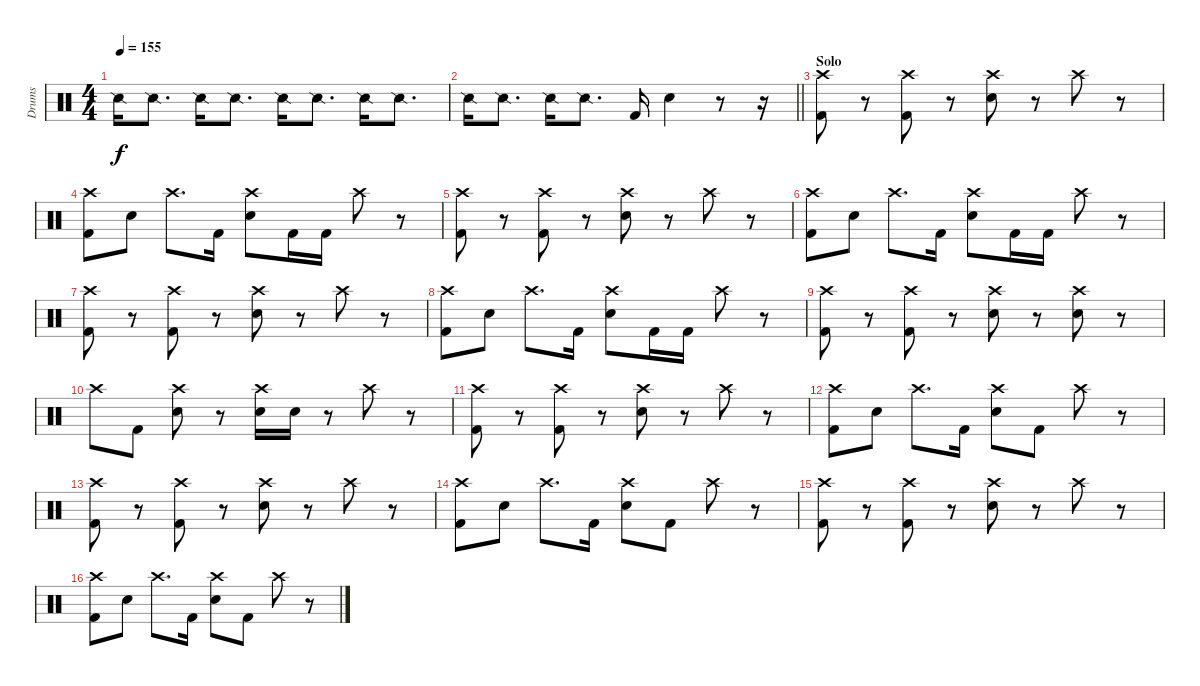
\track ("Drums" "Drums") {instrument percussion}
\staff {score}
\articulation defaults
\ts (4 4)
\tempo 155
\clef neutral
\ks c "Snare (side stick) 2".16{dy f} "Snare (side stick) 2".8{d} "Snare (side stick) 2".16 "Snare (side stick) 2".8{d} "Snare (side stick) 2".16 "Snare (side stick) 2".8{d} "Snare (side stick) 2".16 "Snare (side stick) 2".8{d}
|
\barLineRight lightlight "Snare (side stick) 2".16 "Snare (side stick) 2".8{d} "Snare (side stick) 2".16 "Snare (side stick) 2".8{d} "Kick (hit) 2".16 "Electric Snare (hit)".4
r.8 r.16 |
\section ("" "Solo")
("Crash high (hit)" "Kick (hit) 2").8 r.8 ("Crash high (hit)" "Kick (hit) 2").8 r.8 ("Crash high (hit)" "Electric Snare (hit)").8 r.8 "Crash high (hit)".8 r.8 |
("Crash high (hit)" "Kick (hit) 2").8 "Electric Snare (hit)".8 "Crash high (hit)".8{d} "Kick (hit) 2".16 ("Crash high (hit)" "Electric Snare (hit)").8 "Kick (hit) 2".16 "Kick (hit) 2".16 "Crash high (hit)".8 r.8 |
("Crash high (hit)" "Kick (hit) 2").8 r.8 ("Crash high (hit)" "Kick (hit) 2").8 r.8 ("Crash high (hit)" "Electric Snare (hit)").8 r.8 "Crash high (hit)".8 r.8 |
("Crash high (hit)" "Kick (hit) 2").8 "Electric Snare (hit)".8 "Crash high (hit)".8{d} "Kick (hit) 2".16 ("Crash high (hit)" "Electric Snare (hit)").8 "Kick (hit) 2".16 "Kick (hit) 2".16 "Crash high (hit)".8 r.8 |
("Crash high (hit)" "Kick (hit) 2").8 r.8 ("Crash high (hit)" "Kick (hit) 2").8 r.8 ("Crash high (hit)" "Electric Snare (hit)").8 r.8 "Crash high (hit)".8 r.8 |
("Crash high (hit)" "Kick (hit) 2").8 "Electric Snare (hit)".8 "Crash high (hit)".8{d} "Kick (hit) 2".16 ("Crash high (hit)" "Electric Snare (hit)").8 "Kick (hit) 2".16 "Kick (hit) 2".16 "Crash high (hit)".8 r.8 |
("Crash high (hit)" "Kick (hit) 2").8 r.8 ("Crash high (hit)" "Kick (hit) 2").8 r.8 ("Crash high (hit)" "Electric Snare (hit)").8 r.8 ("Crash high (hit)" "Electric Snare (hit)").8 r.8 |
"Crash high (hit)".8 "Kick (hit) 2".8 ("Crash high (hit)" "Electric Snare (hit)").8 r.8 ("Crash high (hit)" "Electric Snare (hit)").16 "Electric Snare (hit)".16 r.8 "Crash high (hit)".8 r.8 |
("Crash high (hit)" "Kick (hit) 2").8 r.8 ("Crash high (hit)" "Kick (hit) 2").8 r.8 ("Crash high (hit)" "Electric Snare (hit)").8 r.8 "Crash high (hit)".8 r.8 |
("Crash high (hit)" "Kick (hit) 2").8 "Electric Snare (hit)".8 "Crash high (hit)".8{d} "Kick (hit) 2".16 ("Crash high (hit)" "Electric Snare (hit)").8 "Kick (hit) 2".8 "Crash high (hit)".8 r.8 |
("Crash high (hit)" "Kick (hit) 2").8 r.8 ("Crash high (hit)" "Kick (hit) 2").8 r.8 ("Crash high (hit)" "Electric Snare (hit)").8 r.8 "Crash high (hit)".8 r.8 |
("Crash high (hit)" "Kick (hit) 2").8 "Electric Snare (hit)".8 "Crash high (hit)".8{d} "Kick (hit) 2".16 ("Crash high (hit)" "Electric Snare (hit)").8 "Kick (hit) 2".8 "Crash high (hit)".8 r.8 |
("Crash high (hit)" "Kick (hit) 2").8 r.8 ("Crash high (hit)" "Kick (hit) 2").8 r.8 ("Crash high (hit)" "Electric Snare (hit)").8 r.8 "Crash high (hit)".8 r.8 |
("Crash high (hit)" "Kick (hit) 2").8 "Electric Snare (hit)".8 "Crash high (hit)".8{d} "Kick (hit) 2".16 ("Crash high (hit)" "Electric Snare (hit)").8 "Kick (hit) 2".8 "Crash high (hit)".8 r.8
